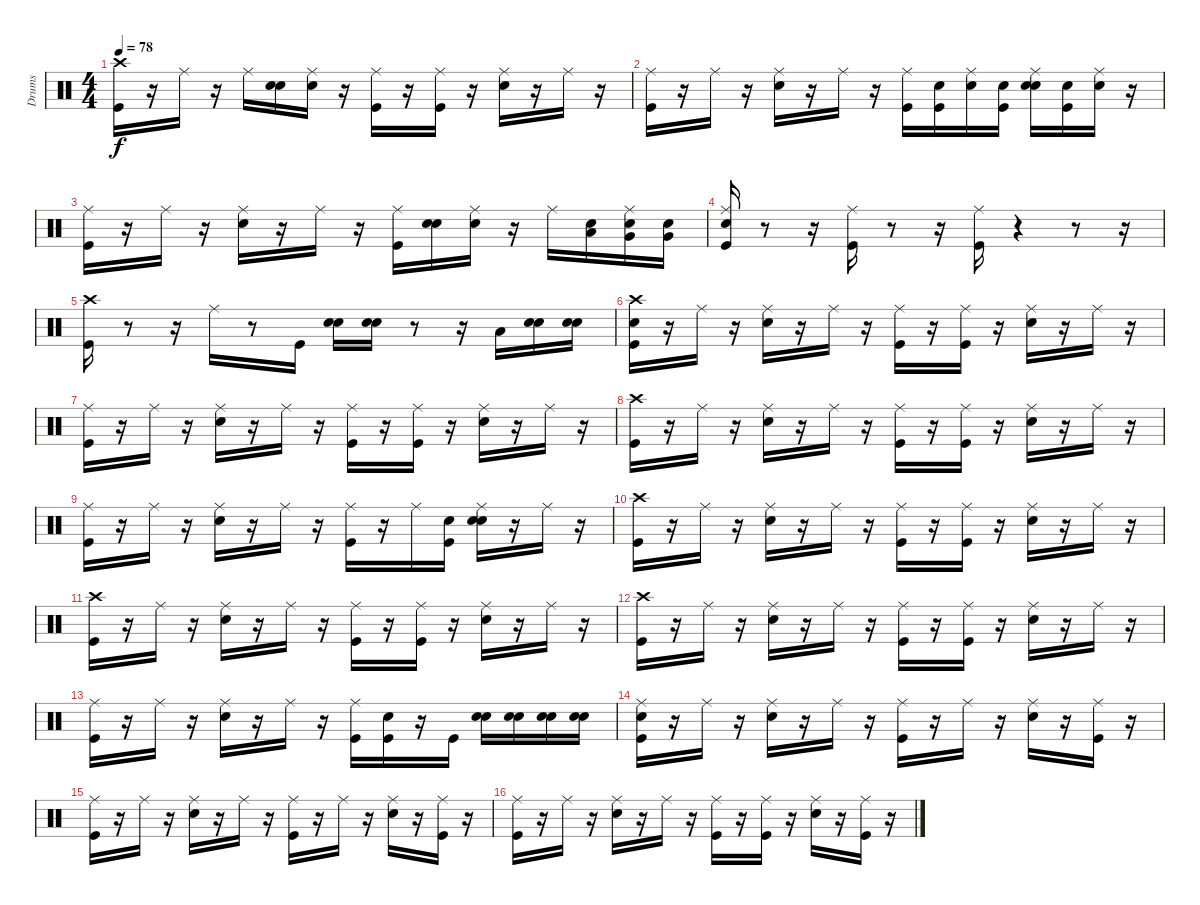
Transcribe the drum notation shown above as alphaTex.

\track ("Drums" "Drums") {instrument percussion}
\staff {score}
\articulation defaults
\ts (4 4)
\tempo 78
\clef neutral
\ks c
("Kick (hit)" "Crash high (hit)").16{dy f} r.16 "Ride (middle)".16 r.16 "Ride (middle)".16 ("Snare (hit)" "Snare (hit) 2").16 ("Snare (hit)" "Ride (middle)").16 r.16 ("Kick (hit)" "Ride (middle)").16 r.16 ("Kick (hit)" "Ride (middle)").16 r.16 ("Snare (hit) 2" "Ride (middle)").16 r.16 "Ride (middle)".16 r.16 |
("Kick (hit)" "Ride (middle)").16 r.16 "Ride (middle)".16 r.16 ("Snare (hit) 2" "Ride (middle)").16 r.16 "Ride (middle)".16 r.16 ("Kick (hit)" "Ride (middle)").16 ("Snare (hit)" "Kick (hit)").16 ("Snare (hit)" "Ride (middle)").16 ("Snare (hit)" "Kick (hit)").16 ("Snare (hit)" "Snare (hit) 2" "Ride (middle)").16 ("Snare (hit)" "Kick (hit)").16 ("Snare (hit)" "Ride (middle)").16 r.16 |
("Kick (hit)" "Ride (middle)").16 r.16 "Ride (middle)".16 r.16 ("Snare (hit) 2" "Ride (middle)").16 r.16 "Ride (middle)".16 r.16 ("Kick (hit)" "Ride (middle)").16 ("Snare (hit)" "Snare (hit) 2").16 ("Snare (hit)" "Ride (middle)").16 r.16 "Ride (middle)".16 ("Snare (hit)" "Low Tom (hit)").16 ("Snare (hit)" "Very Low Tom (hit)" "Ride (middle)").16 ("Snare (hit)" "Very Low Tom (hit)").16 |
("Snare (hit)" "Kick (hit)" "Ride (middle)").16 r.8 r.16 ("Kick (hit)" "Ride (middle)").16 r.8 r.16 ("Kick (hit)" "Ride (middle)").16 r.4 r.8 r.16 |
("Kick (hit)" "Crash high (hit)").16 r.8 r.16 "Ride (middle)".16 r.8 "Kick (hit)".16 ("Snare (hit)" "Snare (hit) 2").16 ("Snare (hit)" "Snare (hit) 2").16 r.8 r.16 "Low Tom (hit)".16 ("Snare (hit)" "Snare (hit) 2").16 ("Snare (hit)" "Snare (hit) 2").16 |
("Snare (hit)" "Kick (hit)" "Crash high (hit)").16 r.16 "Ride (middle)".16 r.16 ("Snare (hit) 2" "Ride (middle)").16 r.16 "Ride (middle)".16 r.16 ("Kick (hit)" "Ride (middle)").16 r.16 ("Kick (hit)" "Ride (middle)").16 r.16 ("Snare (hit) 2" "Ride (middle)").16 r.16 "Ride (middle)".16 r.16 |
("Kick (hit)" "Ride (middle)").16 r.16 "Ride (middle)".16 r.16 ("Snare (hit) 2" "Ride (middle)").16 r.16 "Ride (middle)".16 r.16 ("Kick (hit)" "Ride (middle)").16 r.16 ("Kick (hit)" "Ride (middle)").16 r.16 ("Snare (hit) 2" "Ride (middle)").16 r.16 "Ride (middle)".16 r.16 |
("Kick (hit)" "Crash high (hit)").16 r.16 "Ride (middle)".16 r.16 ("Snare (hit) 2" "Ride (middle)").16 r.16 "Ride (middle)".16 r.16 ("Kick (hit)" "Ride (middle)").16 r.16 ("Kick (hit)" "Ride (middle)").16 r.16 ("Snare (hit) 2" "Ride (middle)").16 r.16 "Ride (middle)".16 r.16 |
("Kick (hit)" "Ride (middle)").16 r.16 "Ride (middle)".16 r.16 ("Snare (hit) 2" "Ride (middle)").16 r.16 "Ride (middle)".16 r.16 ("Kick (hit)" "Ride (middle)").16 r.16 "Ride (middle)".16 ("Snare (hit)" "Kick (hit)").16 ("Snare (hit)" "Snare (hit) 2" "Ride (middle)").16 r.16 "Ride (middle)".16 r.16 |
("Kick (hit)" "Crash high (hit)").16 r.16 "Ride (middle)".16 r.16 ("Snare (hit) 2" "Ride (middle)").16 r.16 "Ride (middle)".16 r.16 ("Kick (hit)" "Ride (middle)").16 r.16 ("Kick (hit)" "Ride (middle)").16 r.16 ("Snare (hit) 2" "Ride (middle)").16 r.16 "Ride (middle)".16 r.16 |
("Kick (hit)" "Crash high (hit)").16 r.16 "Ride (middle)".16 r.16 ("Snare (hit) 2" "Ride (middle)").16 r.16 "Ride (middle)".16 r.16 ("Kick (hit)" "Ride (middle)").16 r.16 ("Kick (hit)" "Ride (middle)").16 r.16 ("Snare (hit) 2" "Ride (middle)").16 r.16 "Ride (middle)".16 r.16 |
("Kick (hit)" "Crash high (hit)").16 r.16 "Ride (middle)".16 r.16 ("Snare (hit) 2" "Ride (middle)").16 r.16 "Ride (middle)".16 r.16 ("Kick (hit)" "Ride (middle)").16 r.16 ("Kick (hit)" "Ride (middle)").16 r.16 ("Snare (hit) 2" "Ride (middle)").16 r.16 "Ride (middle)".16 r.16 |
("Kick (hit)" "Ride (middle)").16 r.16 "Ride (middle)".16 r.16 ("Snare (hit) 2" "Ride (middle)").16 r.16 "Ride (middle)".16 r.16 ("Kick (hit)" "Ride (middle)").16 ("Snare (hit)" "Kick (hit)").16 r.16 "Kick (hit)".16 ("Snare (hit)" "Snare (hit) 2").16 ("Snare (hit)" "Snare (hit) 2").16 ("Snare (hit)" "Snare (hit) 2").16 ("Snare (hit)" "Snare (hit) 2").16 |
("Snare (hit)" "Kick (hit)" "Ride (middle)").16 r.16 "Ride (middle)".16 r.16 ("Snare (hit) 2" "Ride (middle)").16 r.16 "Ride (middle)".16 r.16 ("Kick (hit)" "Ride (middle)").16 r.16 "Ride (middle)".16 r.16 ("Snare (hit) 2" "Ride (middle)").16 r.16 ("Kick (hit)" "Ride (middle)").16 r.16 |
("Kick (hit)" "Ride (middle)").16 r.16 "Ride (middle)".16 r.16 ("Snare (hit) 2" "Ride (middle)").16 r.16 "Ride (middle)".16 r.16 ("Kick (hit)" "Ride (middle)").16 r.16 "Ride (middle)".16 r.16 ("Snare (hit) 2" "Ride (middle)").16 r.16 ("Kick (hit)" "Ride (middle)").16 r.16 |
("Kick (hit)" "Ride (middle)").16 r.16 "Ride (middle)".16 r.16 ("Snare (hit) 2" "Ride (middle)").16 r.16 "Ride (middle)".16 r.16 ("Kick (hit)" "Ride (middle)").16 r.16 ("Kick (hit)" "Ride (middle)").16 r.16 ("Snare (hit) 2" "Ride (middle)").16 r.16 ("Kick (hit)" "Ride (middle)").16 r.16
